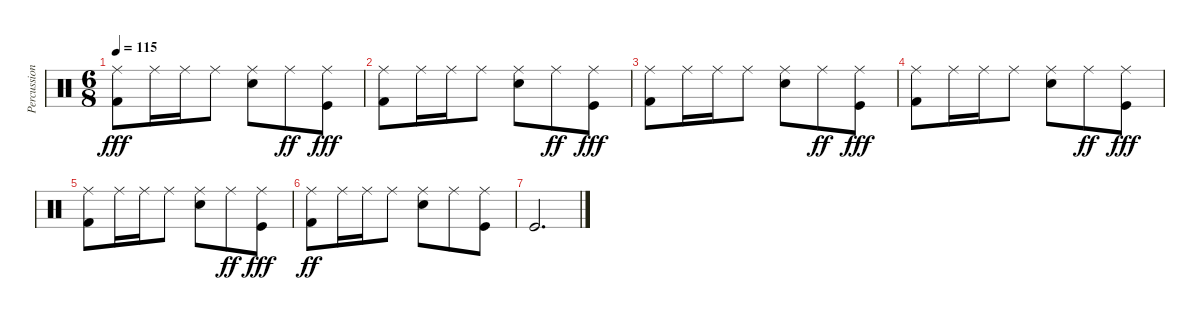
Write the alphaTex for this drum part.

\track ("Percussions" "Percussion") {instrument percussion}
\staff {score}
\articulation defaults
\ts (6 8)
\tempo 115
\clef neutral
\ks c
("Kick (hit) 2" "Ride (middle)").8{dy fff} "Ride (middle)".16 "Ride (middle)".16 "Ride (middle)".8 ("Snare (hit) 2" "Ride (middle)").8 "Ride (middle)".8{dy ff} ("Kick (hit)" "Ride (middle)").8{dy fff} |
("Kick (hit) 2" "Ride (middle)").8 "Ride (middle)".16 "Ride (middle)".16 "Ride (middle)".8 ("Snare (hit) 2" "Ride (middle)").8 "Ride (middle)".8{dy ff} ("Kick (hit)" "Ride (middle)").8{dy fff} |
("Kick (hit) 2" "Ride (middle)").8 "Ride (middle)".16 "Ride (middle)".16 "Ride (middle)".8 ("Snare (hit) 2" "Ride (middle)").8 "Ride (middle)".8{dy ff} ("Kick (hit)" "Ride (middle)").8{dy fff} |
("Kick (hit) 2" "Ride (middle)").8 "Ride (middle)".16 "Ride (middle)".16 "Ride (middle)".8 ("Snare (hit) 2" "Ride (middle)").8 "Ride (middle)".8{dy ff} ("Kick (hit)" "Ride (middle)").8{dy fff} |
("Kick (hit) 2" "Ride (middle)").8 "Ride (middle)".16 "Ride (middle)".16 "Ride (middle)".8 ("Snare (hit) 2" "Ride (middle)").8 "Ride (middle)".8{dy ff} ("Kick (hit)" "Ride (middle)").8{dy fff} |
("Kick (hit) 2" "Ride (middle)").8{dy ff} "Ride (middle)".16 "Ride (middle)".16 "Ride (middle)".8 ("Snare (hit) 2" "Ride (middle)").8 "Ride (middle)".8 ("Kick (hit)" "Ride (middle)").8 |
"Kick (hit)".2{d}
